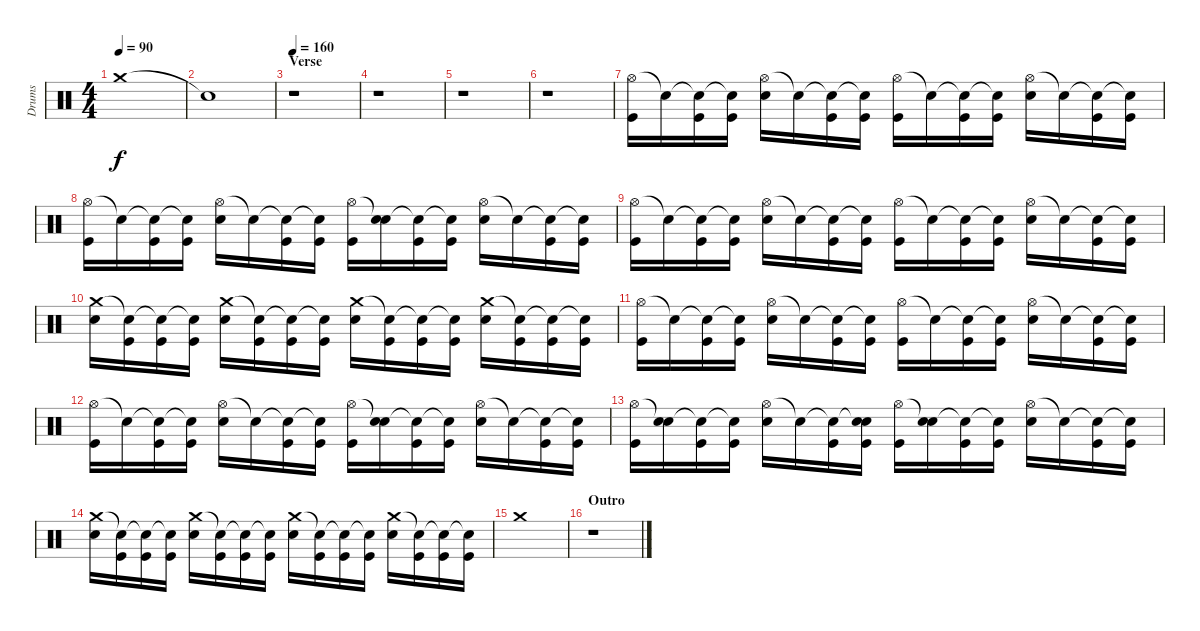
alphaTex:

\track ("Drums" "Drums") {instrument percussion}
\staff {score}
\articulation defaults
\ts (4 4)
\tempo 90
\clef neutral
\ks c "Crash medium (hit)".1{dy f}
|
"Snare (hit)"{t}.1 |
\section ("" "Verse")
\tempo 160
r.1 |
r.1 |
r.1 |
r.1 |
("Hi-Hat (open)" "Kick (hit)").16 "Snare (hit)"{t}.16 ("Snare (hit)"{t} "Kick (hit)").16 ("Snare (hit)"{t} "Kick (hit)").16 ("Hi-Hat (open)" "Electric Snare (hit)").16 "Snare (hit)"{t}.16 ("Snare (hit)"{t} "Kick (hit)").16 ("Snare (hit)"{t} "Kick (hit)").16 ("Hi-Hat (open)" "Kick (hit)").16 "Snare (hit)"{t}.16 ("Snare (hit)"{t} "Kick (hit)").16 ("Snare (hit)"{t} "Kick (hit)").16 ("Hi-Hat (open)" "Electric Snare (hit)").16 "Snare (hit)"{t}.16 ("Snare (hit)"{t} "Kick (hit)").16 ("Snare (hit)"{t} "Kick (hit)").16 |
("Hi-Hat (open)" "Kick (hit)").16 "Snare (hit)"{t}.16 ("Snare (hit)"{t} "Kick (hit)").16 ("Snare (hit)"{t} "Kick (hit)").16 ("Hi-Hat (open)" "Electric Snare (hit)").16 "Snare (hit)"{t}.16 ("Snare (hit)"{t} "Kick (hit)").16 ("Snare (hit)"{t} "Kick (hit)").16 ("Hi-Hat (open)" "Kick (hit)").16 ("Snare (hit)"{t} "Electric Snare (hit)").16 ("Snare (hit)"{t} "Kick (hit)").16 ("Snare (hit)"{t} "Kick (hit)").16 ("Hi-Hat (open)" "Electric Snare (hit)").16 "Snare (hit)"{t}.16 ("Snare (hit)"{t} "Kick (hit)").16 ("Snare (hit)"{t} "Kick (hit)").16 |
("Hi-Hat (open)" "Kick (hit)").16 "Snare (hit)"{t}.16 ("Snare (hit)"{t} "Kick (hit)").16 ("Snare (hit)"{t} "Kick (hit)").16 ("Hi-Hat (open)" "Electric Snare (hit)").16 "Snare (hit)"{t}.16 ("Snare (hit)"{t} "Kick (hit)").16 ("Snare (hit)"{t} "Kick (hit)").16 ("Hi-Hat (open)" "Kick (hit)").16 "Snare (hit)"{t}.16 ("Snare (hit)"{t} "Kick (hit)").16 ("Snare (hit)"{t} "Kick (hit)").16 ("Hi-Hat (open)" "Electric Snare (hit)").16 "Snare (hit)"{t}.16 ("Snare (hit)"{t} "Kick (hit)").16 ("Snare (hit)"{t} "Kick (hit)").16 |
("Crash medium (hit)" "Electric Snare (hit)").16 ("Snare (hit)"{t} "Kick (hit)").16 ("Snare (hit)"{t} "Kick (hit)").16 ("Snare (hit)"{t} "Kick (hit)").16 ("Crash medium (hit)" "Electric Snare (hit)").16 ("Snare (hit)"{t} "Kick (hit)").16 ("Snare (hit)"{t} "Kick (hit)").16 ("Snare (hit)"{t} "Kick (hit)").16 ("Crash medium (hit)" "Electric Snare (hit)").16 ("Snare (hit)"{t} "Kick (hit)").16 ("Snare (hit)"{t} "Kick (hit)").16 ("Snare (hit)"{t} "Kick (hit)").16 ("Crash medium (hit)" "Electric Snare (hit)").16 ("Snare (hit)"{t} "Kick (hit)").16 ("Snare (hit)"{t} "Kick (hit)").16 ("Snare (hit)"{t} "Kick (hit)").16 |
("Hi-Hat (open)" "Kick (hit)").16 "Snare (hit)"{t}.16 ("Snare (hit)"{t} "Kick (hit)").16 ("Snare (hit)"{t} "Kick (hit)").16 ("Hi-Hat (open)" "Electric Snare (hit)").16 "Snare (hit)"{t}.16 ("Snare (hit)"{t} "Kick (hit)").16 ("Snare (hit)"{t} "Kick (hit)").16 ("Hi-Hat (open)" "Kick (hit)").16 "Snare (hit)"{t}.16 ("Snare (hit)"{t} "Kick (hit)").16 ("Snare (hit)"{t} "Kick (hit)").16 ("Hi-Hat (open)" "Electric Snare (hit)").16 "Snare (hit)"{t}.16 ("Snare (hit)"{t} "Kick (hit)").16 ("Snare (hit)"{t} "Kick (hit)").16 |
("Hi-Hat (open)" "Kick (hit)").16 "Snare (hit)"{t}.16 ("Snare (hit)"{t} "Kick (hit)").16 ("Snare (hit)"{t} "Kick (hit)").16 ("Hi-Hat (open)" "Electric Snare (hit)").16 "Snare (hit)"{t}.16 ("Snare (hit)"{t} "Kick (hit)").16 ("Snare (hit)"{t} "Kick (hit)").16 ("Hi-Hat (open)" "Kick (hit)").16 ("Snare (hit)"{t} "Electric Snare (hit)").16 ("Snare (hit)"{t} "Kick (hit)").16 ("Snare (hit)"{t} "Kick (hit)").16 ("Hi-Hat (open)" "Electric Snare (hit)").16 "Snare (hit)"{t}.16 ("Snare (hit)"{t} "Kick (hit)").16 ("Snare (hit)"{t} "Kick (hit)").16 |
("Hi-Hat (open)" "Kick (hit)").16 ("Snare (hit)"{t} "Electric Snare (hit)").16 ("Snare (hit)"{t} "Kick (hit)").16 ("Snare (hit)"{t} "Kick (hit)").16 ("Hi-Hat (open)" "Electric Snare (hit)").16 "Snare (hit)"{t}.16 ("Snare (hit)"{t} "Kick (hit)").16 ("Snare (hit)"{t} "Electric Snare (hit)" "Kick (hit)").16 ("Hi-Hat (open)" "Kick (hit)").16 ("Snare (hit)"{t} "Electric Snare (hit)").16 ("Snare (hit)"{t} "Kick (hit)").16 ("Snare (hit)"{t} "Kick (hit)").16 ("Hi-Hat (open)" "Electric Snare (hit)").16 "Snare (hit)"{t}.16 ("Snare (hit)"{t} "Kick (hit)").16 ("Snare (hit)"{t} "Kick (hit)").16 |
("Crash medium (hit)" "Electric Snare (hit)").16 ("Snare (hit)"{t} "Kick (hit)").16 ("Snare (hit)"{t} "Kick (hit)").16 ("Snare (hit)"{t} "Kick (hit)").16 ("Crash medium (hit)" "Electric Snare (hit)").16 ("Snare (hit)"{t} "Kick (hit)").16 ("Snare (hit)"{t} "Kick (hit)").16 ("Snare (hit)"{t} "Kick (hit)").16 ("Crash medium (hit)" "Electric Snare (hit)").16 ("Snare (hit)"{t} "Kick (hit)").16 ("Snare (hit)"{t} "Kick (hit)").16 ("Snare (hit)"{t} "Kick (hit)").16 ("Crash medium (hit)" "Electric Snare (hit)").16 ("Snare (hit)"{t} "Kick (hit)").16 ("Snare (hit)"{t} "Kick (hit)").16 ("Snare (hit)"{t} "Kick (hit)").16 |
"Crash medium (hit)".1 |
\section ("" "Outro")
r.1
